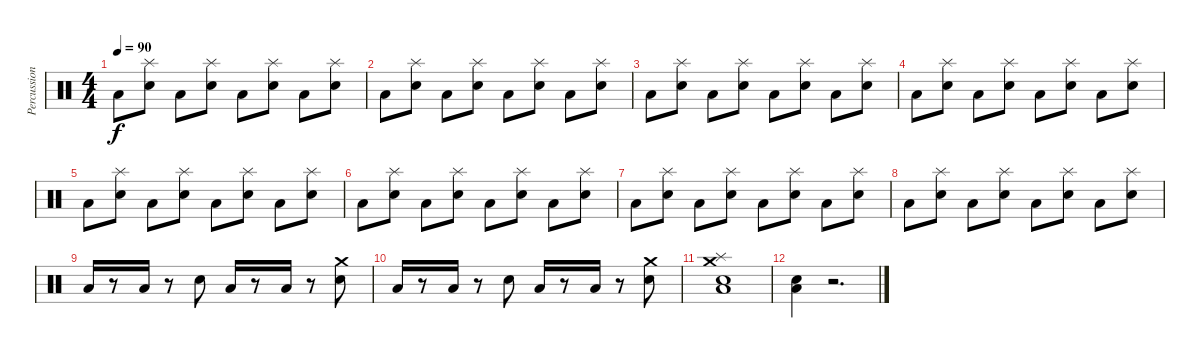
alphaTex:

\track ("Percussions" "Percussion") {instrument percussion}
\staff {score}
\articulation defaults
\ts (4 4)
\tempo 90
\clef neutral
\ks c "Low Floor Tom (hit)".8{dy f}
("Snare (hit) 2" "Splash (hit)").8 "Low Floor Tom (hit)".8 ("Snare (hit) 2" "Splash (hit)").8 "Low Floor Tom (hit)".8 ("Snare (hit) 2" "Splash (hit)").8 "Low Floor Tom (hit)".8 ("Snare (hit) 2" "Splash (hit)").8 |
"Low Floor Tom (hit)".8 ("Snare (hit) 2" "Splash (hit)").8 "Low Floor Tom (hit)".8 ("Snare (hit) 2" "Splash (hit)").8 "Low Floor Tom (hit)".8 ("Snare (hit) 2" "Splash (hit)").8 "Low Floor Tom (hit)".8 ("Snare (hit) 2" "Splash (hit)").8 |
"Low Floor Tom (hit)".8 ("Snare (hit) 2" "Splash (hit)").8 "Low Floor Tom (hit)".8 ("Snare (hit) 2" "Splash (hit)").8 "Low Floor Tom (hit)".8 ("Snare (hit) 2" "Splash (hit)").8 "Low Floor Tom (hit)".8 ("Snare (hit) 2" "Splash (hit)").8 |
"Low Floor Tom (hit)".8 ("Snare (hit) 2" "Splash (hit)").8 "Low Floor Tom (hit)".8 ("Snare (hit) 2" "Splash (hit)").8 "Low Floor Tom (hit)".8 ("Snare (hit) 2" "Splash (hit)").8 "Low Floor Tom (hit)".8 ("Snare (hit) 2" "Splash (hit)").8 |
"Low Floor Tom (hit)".8 ("Snare (hit) 2" "Splash (hit)").8 "Low Floor Tom (hit)".8 ("Snare (hit) 2" "Splash (hit)").8 "Low Floor Tom (hit)".8 ("Snare (hit) 2" "Splash (hit)").8 "Low Floor Tom (hit)".8 ("Snare (hit) 2" "Splash (hit)").8 |
"Low Floor Tom (hit)".8 ("Snare (hit) 2" "Splash (hit)").8 "Low Floor Tom (hit)".8 ("Snare (hit) 2" "Splash (hit)").8 "Low Floor Tom (hit)".8 ("Snare (hit) 2" "Splash (hit)").8 "Low Floor Tom (hit)".8 ("Snare (hit) 2" "Splash (hit)").8 |
"Low Floor Tom (hit)".8 ("Snare (hit) 2" "Splash (hit)").8 "Low Floor Tom (hit)".8 ("Snare (hit) 2" "Splash (hit)").8 "Low Floor Tom (hit)".8 ("Snare (hit) 2" "Splash (hit)").8 "Low Floor Tom (hit)".8 ("Snare (hit) 2" "Splash (hit)").8 |
"Low Floor Tom (hit)".8 ("Snare (hit) 2" "Splash (hit)").8 "Low Floor Tom (hit)".8 ("Snare (hit) 2" "Splash (hit)").8 "Low Floor Tom (hit)".8 ("Snare (hit) 2" "Splash (hit)").8 "Low Floor Tom (hit)".8 ("Snare (hit) 2" "Splash (hit)").8 |
"Low Floor Tom (hit)".16 r.8 "Low Floor Tom (hit)".16 r.8 "Snare (hit) 2".8 "Low Floor Tom (hit)".16 r.8 "Low Floor Tom (hit)".16 r.8 ("Snare (hit) 2" "Crash medium (hit)").8 |
"Low Floor Tom (hit)".16 r.8 "Low Floor Tom (hit)".16 r.8 "Snare (hit) 2".8 "Low Floor Tom (hit)".16 r.8 "Low Floor Tom (hit)".16 r.8 ("Snare (hit) 2" "Crash medium (hit)").8 |
("Snare (hit) 2" "Low Floor Tom (hit)" "Crash medium (hit)" "Splash (hit)").1 |
("Snare (hit) 2" "Low Floor Tom (hit)").4 r.2{d}
